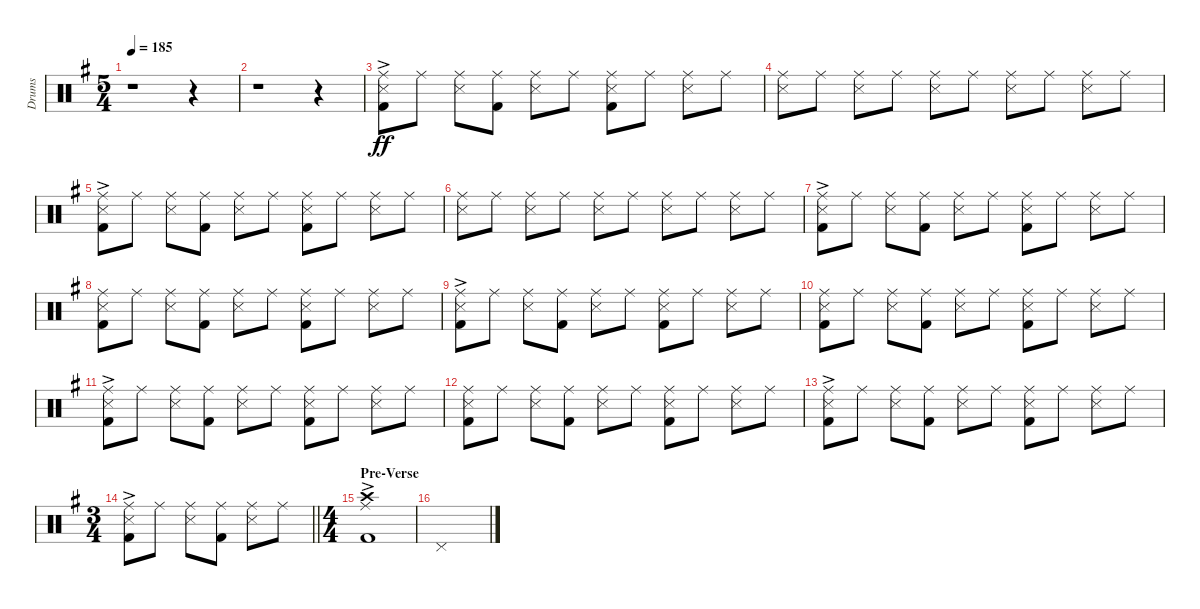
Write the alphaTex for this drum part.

\track ("Drums" "Drums") {instrument percussion}
\staff {score}
\articulation defaults
\ts (5 4)
\tempo 185
\clef neutral
\ks g
r.1{dy ff} r.4 |
r.1 r.4 |
("Ride (middle)"{ac} "Snare (side stick) 3" "Kick (hit) 2").8{volume 13} "Ride (middle)".8 ("Ride (middle)" "Snare (side stick) 3").8 ("Ride (middle)" "Kick (hit) 2").8 ("Ride (middle)" "Snare (side stick) 3").8 "Ride (middle)".8 ("Ride (middle)" "Snare (side stick) 3" "Kick (hit) 2").8 "Ride (middle)".8 ("Ride (middle)" "Snare (side stick) 3").8 "Ride (middle)".8 |
("Ride (middle)" "Snare (side stick) 3").8 "Ride (middle)".8 ("Ride (middle)" "Snare (side stick) 3").8 "Ride (middle)".8 ("Ride (middle)" "Snare (side stick) 3").8 "Ride (middle)".8 ("Ride (middle)" "Snare (side stick) 3").8 "Ride (middle)".8 ("Ride (middle)" "Snare (side stick) 3").8 "Ride (middle)".8 |
("Ride (middle)"{ac} "Snare (side stick) 3" "Kick (hit) 2").8 "Ride (middle)".8 ("Ride (middle)" "Snare (side stick) 3").8 ("Ride (middle)" "Kick (hit) 2").8 ("Ride (middle)" "Snare (side stick) 3").8 "Ride (middle)".8 ("Ride (middle)" "Snare (side stick) 3" "Kick (hit) 2").8 "Ride (middle)".8 ("Ride (middle)" "Snare (side stick) 3").8 "Ride (middle)".8 |
("Ride (middle)" "Snare (side stick) 3").8 "Ride (middle)".8 ("Ride (middle)" "Snare (side stick) 3").8 "Ride (middle)".8 ("Ride (middle)" "Snare (side stick) 3").8 "Ride (middle)".8 ("Ride (middle)" "Snare (side stick) 3").8 "Ride (middle)".8 ("Ride (middle)" "Snare (side stick) 3").8 "Ride (middle)".8 |
("Ride (middle)"{ac} "Snare (side stick) 3" "Kick (hit) 2").8 "Ride (middle)".8 ("Ride (middle)" "Snare (side stick) 3").8 ("Ride (middle)" "Kick (hit) 2").8 ("Ride (middle)" "Snare (side stick) 3").8 "Ride (middle)".8 ("Ride (middle)" "Snare (side stick) 3" "Kick (hit) 2").8 "Ride (middle)".8 ("Ride (middle)" "Snare (side stick) 3").8 "Ride (middle)".8 |
("Ride (middle)" "Snare (side stick) 3" "Kick (hit) 2").8 "Ride (middle)".8 ("Ride (middle)" "Snare (side stick) 3").8 ("Ride (middle)" "Kick (hit) 2").8 ("Ride (middle)" "Snare (side stick) 3").8 "Ride (middle)".8 ("Ride (middle)" "Snare (side stick) 3" "Kick (hit) 2").8 "Ride (middle)".8 ("Ride (middle)" "Snare (side stick) 3").8 "Ride (middle)".8 |
("Ride (middle)"{ac} "Snare (side stick) 3" "Kick (hit) 2").8 "Ride (middle)".8 ("Ride (middle)" "Snare (side stick) 3").8 ("Ride (middle)" "Kick (hit) 2").8 ("Ride (middle)" "Snare (side stick) 3").8 "Ride (middle)".8 ("Ride (middle)" "Snare (side stick) 3" "Kick (hit) 2").8 "Ride (middle)".8 ("Ride (middle)" "Snare (side stick) 3").8 "Ride (middle)".8 |
("Ride (middle)" "Snare (side stick) 3" "Kick (hit) 2").8 "Ride (middle)".8 ("Ride (middle)" "Snare (side stick) 3").8 ("Ride (middle)" "Kick (hit) 2").8 ("Ride (middle)" "Snare (side stick) 3").8 "Ride (middle)".8 ("Ride (middle)" "Snare (side stick) 3" "Kick (hit) 2").8 "Ride (middle)".8 ("Ride (middle)" "Snare (side stick) 3").8 "Ride (middle)".8 |
("Ride (middle)"{ac} "Snare (side stick) 3" "Kick (hit) 2").8 "Ride (middle)".8 ("Ride (middle)" "Snare (side stick) 3").8 ("Ride (middle)" "Kick (hit) 2").8 ("Ride (middle)" "Snare (side stick) 3").8 "Ride (middle)".8 ("Ride (middle)" "Snare (side stick) 3" "Kick (hit) 2").8 "Ride (middle)".8 ("Ride (middle)" "Snare (side stick) 3").8 "Ride (middle)".8 |
("Ride (middle)" "Snare (side stick) 3" "Kick (hit) 2").8 "Ride (middle)".8 ("Ride (middle)" "Snare (side stick) 3").8 ("Ride (middle)" "Kick (hit) 2").8 ("Ride (middle)" "Snare (side stick) 3").8 "Ride (middle)".8 ("Ride (middle)" "Snare (side stick) 3" "Kick (hit) 2").8 "Ride (middle)".8 ("Ride (middle)" "Snare (side stick) 3").8 "Ride (middle)".8 |
("Ride (middle)"{ac} "Snare (side stick) 3" "Kick (hit) 2").8 "Ride (middle)".8 ("Ride (middle)" "Snare (side stick) 3").8 ("Ride (middle)" "Kick (hit) 2").8 ("Ride (middle)" "Snare (side stick) 3").8 "Ride (middle)".8 ("Ride (middle)" "Snare (side stick) 3" "Kick (hit) 2").8 "Ride (middle)".8 ("Ride (middle)" "Snare (side stick) 3").8 "Ride (middle)".8 |
\ts (3 4)
\barLineRight lightlight
("Ride (middle)"{ac} "Snare (side stick) 3" "Kick (hit) 2").8 "Ride (middle)".8 ("Ride (middle)" "Snare (side stick) 3").8 ("Ride (middle)" "Kick (hit) 2").8 ("Ride (middle)" "Snare (side stick) 3").8 "Ride (middle)".8 |
\ts (4 4)
\section ("" "Pre-Verse")
("Crash high (hit)" "Ride (middle)"{ac} "Kick (hit) 2").1{volume 14} |
"Pedal Hi-Hat (hit)".1
